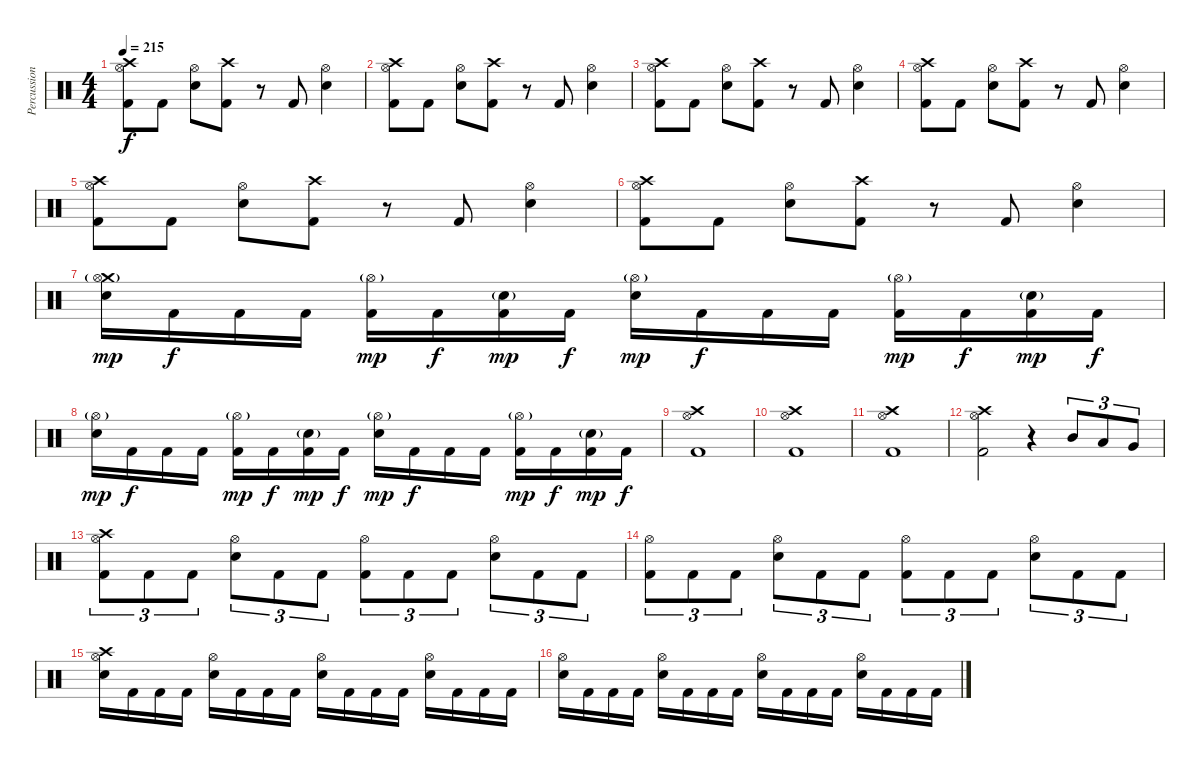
\track ("Percussions" "Percussion") {instrument percussion}
\staff {score}
\articulation defaults
\ts (4 4)
\tempo 215
\clef neutral
\ks c
("Crash high (hit)" "Hi-Hat (open)" "Kick (hit) 2").8{dy f} "Kick (hit) 2".8 ("Hi-Hat (open)" "Electric Snare (hit)").8 ("Crash high (hit)" "Kick (hit) 2").8 r.8 "Kick (hit) 2".8 ("Hi-Hat (open)" "Electric Snare (hit)").4 |
("Crash high (hit)" "Hi-Hat (open)" "Kick (hit) 2").8 "Kick (hit) 2".8 ("Hi-Hat (open)" "Electric Snare (hit)").8 ("Crash high (hit)" "Kick (hit) 2").8 r.8 "Kick (hit) 2".8 ("Hi-Hat (open)" "Electric Snare (hit)").4 |
("Crash high (hit)" "Hi-Hat (open)" "Kick (hit) 2").8 "Kick (hit) 2".8 ("Hi-Hat (open)" "Electric Snare (hit)").8 ("Crash high (hit)" "Kick (hit) 2").8 r.8 "Kick (hit) 2".8 ("Hi-Hat (open)" "Electric Snare (hit)").4 |
("Crash high (hit)" "Hi-Hat (open)" "Kick (hit) 2").8 "Kick (hit) 2".8 ("Hi-Hat (open)" "Electric Snare (hit)").8 ("Crash high (hit)" "Kick (hit) 2").8 r.8 "Kick (hit) 2".8 ("Hi-Hat (open)" "Electric Snare (hit)").4 |
("Crash high (hit)" "Hi-Hat (open)" "Kick (hit) 2").8 "Kick (hit) 2".8 ("Hi-Hat (open)" "Electric Snare (hit)").8 ("Crash high (hit)" "Kick (hit) 2").8 r.8 "Kick (hit) 2".8 ("Hi-Hat (open)" "Electric Snare (hit)").4 |
("Crash high (hit)" "Hi-Hat (open)" "Kick (hit) 2").8 "Kick (hit) 2".8 ("Hi-Hat (open)" "Electric Snare (hit)").8 ("Crash high (hit)" "Kick (hit) 2").8 r.8 "Kick (hit) 2".8 ("Hi-Hat (open)" "Electric Snare (hit)").4 |
("Crash medium (hit)" "Hi-Hat (open)"{g} "Electric Snare (hit)").16{dy mp} "Kick (hit) 2".16{dy f} "Kick (hit) 2".16 "Kick (hit) 2".16 ("Hi-Hat (open)"{g} "Kick (hit) 2").16{dy mp} "Kick (hit) 2".16{dy f} ("Electric Snare (hit)"{g} "Kick (hit) 2").16{dy mp} "Kick (hit) 2".16{dy f} ("Hi-Hat (open)"{g} "Electric Snare (hit)").16{dy mp} "Kick (hit) 2".16{dy f} "Kick (hit) 2".16 "Kick (hit) 2".16 ("Hi-Hat (open)"{g} "Kick (hit) 2").16{dy mp} "Kick (hit) 2".16{dy f} ("Electric Snare (hit)"{g} "Kick (hit) 2").16{dy mp} "Kick (hit) 2".16{dy f} |
("Hi-Hat (open)"{g} "Electric Snare (hit)").16{dy mp} "Kick (hit) 2".16{dy f} "Kick (hit) 2".16 "Kick (hit) 2".16 ("Hi-Hat (open)"{g} "Kick (hit) 2").16{dy mp} "Kick (hit) 2".16{dy f} ("Electric Snare (hit)"{g} "Kick (hit) 2").16{dy mp} "Kick (hit) 2".16{dy f} ("Hi-Hat (open)"{g} "Electric Snare (hit)").16{dy mp} "Kick (hit) 2".16{dy f} "Kick (hit) 2".16 "Kick (hit) 2".16 ("Hi-Hat (open)"{g} "Kick (hit) 2").16{dy mp} "Kick (hit) 2".16{dy f} ("Electric Snare (hit)"{g} "Kick (hit) 2").16{dy mp} "Kick (hit) 2".16{dy f} |
("Crash high (hit)" "Hi-Hat (open)" "Kick (hit) 2").1 |
("Crash high (hit)" "Hi-Hat (open)" "Kick (hit) 2").1 |
("Crash high (hit)" "Hi-Hat (open)" "Kick (hit) 2").1 |
("Crash high (hit)" "Hi-Hat (open)" "Kick (hit) 2").2 r.4 "Mid Tom (hit)".8{tu (3 2)} "Low Tom (hit)".8{tu (3 2)} "Very Low Tom (hit)".8{tu (3 2)} |
("Crash high (hit)" "Hi-Hat (open)" "Kick (hit) 2").8{tu (3 2)} "Kick (hit) 2".8{tu (3 2)} "Kick (hit) 2".8{tu (3 2)} ("Hi-Hat (open)" "Electric Snare (hit)").8{tu (3 2)} "Kick (hit) 2".8{tu (3 2)} "Kick (hit) 2".8{tu (3 2)} ("Hi-Hat (open)" "Kick (hit) 2").8{tu (3 2)} "Kick (hit) 2".8{tu (3 2)} "Kick (hit) 2".8{tu (3 2)} ("Hi-Hat (open)" "Electric Snare (hit)").8{tu (3 2)} "Kick (hit) 2".8{tu (3 2)} "Kick (hit) 2".8{tu (3 2)} |
("Hi-Hat (open)" "Kick (hit) 2").8{tu (3 2)} "Kick (hit) 2".8{tu (3 2)} "Kick (hit) 2".8{tu (3 2)} ("Hi-Hat (open)" "Electric Snare (hit)").8{tu (3 2)} "Kick (hit) 2".8{tu (3 2)} "Kick (hit) 2".8{tu (3 2)} ("Hi-Hat (open)" "Kick (hit) 2").8{tu (3 2)} "Kick (hit) 2".8{tu (3 2)} "Kick (hit) 2".8{tu (3 2)} ("Hi-Hat (open)" "Electric Snare (hit)").8{tu (3 2)} "Kick (hit) 2".8{tu (3 2)} "Kick (hit) 2".8{tu (3 2)} |
("Crash high (hit)" "Hi-Hat (open)" "Electric Snare (hit)").16 "Kick (hit) 2".16 "Kick (hit) 2".16 "Kick (hit) 2".16 ("Hi-Hat (open)" "Electric Snare (hit)").16 "Kick (hit) 2".16 "Kick (hit) 2".16 "Kick (hit) 2".16 ("Hi-Hat (open)" "Electric Snare (hit)").16 "Kick (hit) 2".16 "Kick (hit) 2".16 "Kick (hit) 2".16 ("Hi-Hat (open)" "Electric Snare (hit)").16 "Kick (hit) 2".16 "Kick (hit) 2".16 "Kick (hit) 2".16 |
("Hi-Hat (open)" "Electric Snare (hit)").16 "Kick (hit) 2".16 "Kick (hit) 2".16 "Kick (hit) 2".16 ("Hi-Hat (open)" "Electric Snare (hit)").16 "Kick (hit) 2".16 "Kick (hit) 2".16 "Kick (hit) 2".16 ("Hi-Hat (open)" "Electric Snare (hit)").16 "Kick (hit) 2".16 "Kick (hit) 2".16 "Kick (hit) 2".16 ("Hi-Hat (open)" "Electric Snare (hit)").16 "Kick (hit) 2".16 "Kick (hit) 2".16 "Kick (hit) 2".16
